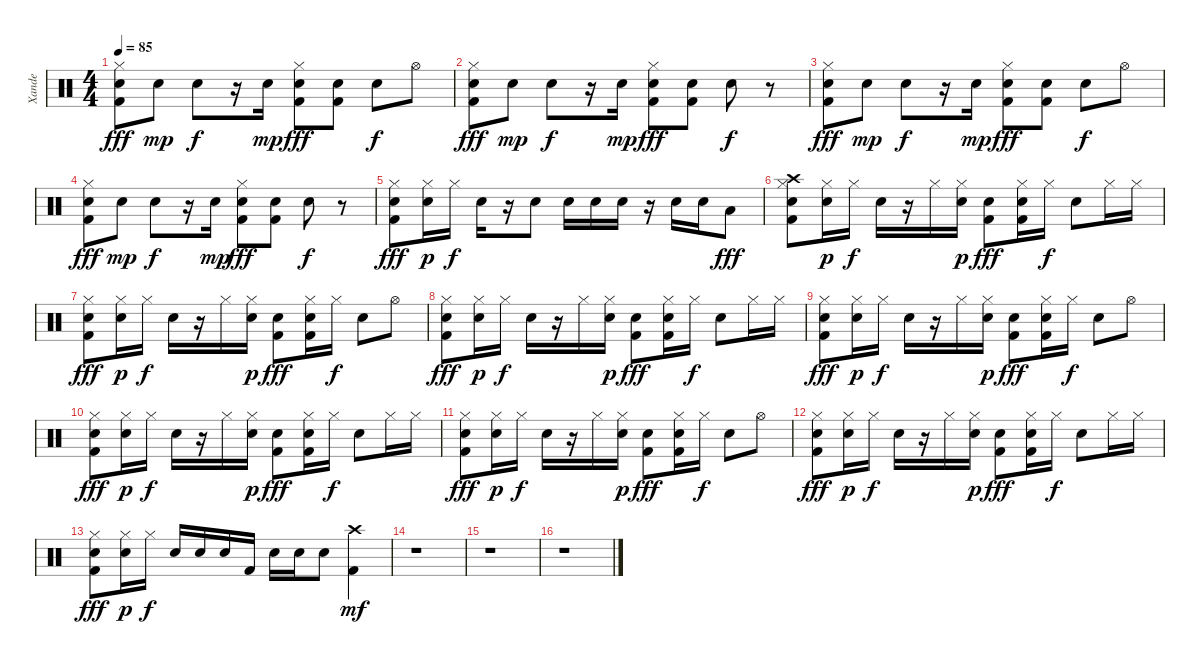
\track ("Xande" "Xande") {instrument percussion}
\staff {score}
\articulation defaults
\ts (4 4)
\tempo 85
\clef neutral
\ks c
("Hi-Hat (closed)" "Snare (hit) 2" "Kick (hit) 2").8{dy fff} "Snare (hit) 2".8{dy mp} "Electric Snare (hit)".8{dy f} r.16 "Snare (hit) 2".16{dy mp} ("Hi-Hat (closed)" "Snare (hit) 2" "Kick (hit) 2").8{dy fff} ("Snare (hit) 2" "Kick (hit) 2").8 "Electric Snare (hit)".8{dy f} "Hi-Hat (open)".8 |
("Hi-Hat (closed)" "Snare (hit) 2" "Kick (hit) 2").8{dy fff} "Snare (hit) 2".8{dy mp} "Electric Snare (hit)".8{dy f} r.16 "Snare (hit) 2".16{dy mp} ("Hi-Hat (closed)" "Snare (hit) 2" "Kick (hit) 2").8{dy fff} ("Snare (hit) 2" "Kick (hit) 2").8 "Electric Snare (hit)".8{dy f} r.8 |
("Hi-Hat (closed)" "Snare (hit) 2" "Kick (hit) 2").8{dy fff} "Snare (hit) 2".8{dy mp} "Electric Snare (hit)".8{dy f} r.16 "Snare (hit) 2".16{dy mp} ("Hi-Hat (closed)" "Snare (hit) 2" "Kick (hit) 2").8{dy fff} ("Snare (hit) 2" "Kick (hit) 2").8 "Electric Snare (hit)".8{dy f} "Hi-Hat (open)".8 |
("Hi-Hat (closed)" "Snare (hit) 2" "Kick (hit) 2").8{dy fff} "Snare (hit) 2".8{dy mp} "Electric Snare (hit)".8{dy f} r.16 "Snare (hit) 2".16{dy mp} ("Hi-Hat (closed)" "Snare (hit) 2" "Kick (hit) 2").8{dy fff} ("Snare (hit) 2" "Kick (hit) 2").8 "Electric Snare (hit)".8{dy f} r.8 |
("Hi-Hat (closed)" "Snare (hit) 2" "Kick (hit) 2").8{dy fff} ("Hi-Hat (closed)" "Snare (hit) 2").16{dy p} "Hi-Hat (closed)".16{dy f} "Electric Snare (hit)".16 r.16 "Snare (hit) 2".8 "Snare (hit) 2".16 "Snare (hit) 2".16 "Snare (hit) 2".16 r.16 "Snare (hit) 2".16 "Snare (hit) 2".16 "Low Tom (hit)".8{dy fff} |
("Crash high (hit)" "Hi-Hat (closed)" "Snare (hit) 2" "Kick (hit) 2").8 ("Hi-Hat (closed)" "Snare (hit) 2").16{dy p} "Hi-Hat (closed)".16{dy f} "Electric Snare (hit)".16 r.16 "Hi-Hat (closed)".16 ("Hi-Hat (closed)" "Snare (hit) 2").16{dy p} ("Snare (hit) 2" "Kick (hit) 2").8{dy fff} ("Hi-Hat (closed)" "Snare (hit) 2" "Kick (hit) 2").16 "Hi-Hat (closed)".16{dy f} "Electric Snare (hit)".8 "Hi-Hat (closed)".16 "Hi-Hat (closed)".16 |
("Hi-Hat (closed)" "Snare (hit) 2" "Kick (hit) 2").8{dy fff} ("Hi-Hat (closed)" "Snare (hit) 2").16{dy p} "Hi-Hat (closed)".16{dy f} "Electric Snare (hit)".16 r.16 "Hi-Hat (closed)".16 ("Hi-Hat (closed)" "Snare (hit) 2").16{dy p} ("Snare (hit) 2" "Kick (hit) 2").8{dy fff} ("Hi-Hat (closed)" "Snare (hit) 2" "Kick (hit) 2").16 "Hi-Hat (closed)".16{dy f} "Electric Snare (hit)".8 "Hi-Hat (open)".8 |
("Hi-Hat (closed)" "Snare (hit) 2" "Kick (hit) 2").8{dy fff} ("Hi-Hat (closed)" "Snare (hit) 2").16{dy p} "Hi-Hat (closed)".16{dy f} "Electric Snare (hit)".16 r.16 "Hi-Hat (closed)".16 ("Hi-Hat (closed)" "Snare (hit) 2").16{dy p} ("Snare (hit) 2" "Kick (hit) 2").8{dy fff} ("Hi-Hat (closed)" "Snare (hit) 2" "Kick (hit) 2").16 "Hi-Hat (closed)".16{dy f} "Electric Snare (hit)".8 "Hi-Hat (closed)".16 "Hi-Hat (closed)".16 |
("Hi-Hat (closed)" "Snare (hit) 2" "Kick (hit) 2").8{dy fff} ("Hi-Hat (closed)" "Snare (hit) 2").16{dy p} "Hi-Hat (closed)".16{dy f} "Electric Snare (hit)".16 r.16 "Hi-Hat (closed)".16 ("Hi-Hat (closed)" "Snare (hit) 2").16{dy p} ("Snare (hit) 2" "Kick (hit) 2").8{dy fff} ("Hi-Hat (closed)" "Snare (hit) 2" "Kick (hit) 2").16 "Hi-Hat (closed)".16{dy f} "Electric Snare (hit)".8 "Hi-Hat (open)".8 |
("Hi-Hat (closed)" "Snare (hit) 2" "Kick (hit) 2").8{dy fff} ("Hi-Hat (closed)" "Snare (hit) 2").16{dy p} "Hi-Hat (closed)".16{dy f} "Electric Snare (hit)".16 r.16 "Hi-Hat (closed)".16 ("Hi-Hat (closed)" "Snare (hit) 2").16{dy p} ("Snare (hit) 2" "Kick (hit) 2").8{dy fff} ("Hi-Hat (closed)" "Snare (hit) 2" "Kick (hit) 2").16 "Hi-Hat (closed)".16{dy f} "Electric Snare (hit)".8 "Hi-Hat (closed)".16 "Hi-Hat (closed)".16 |
("Hi-Hat (closed)" "Snare (hit) 2" "Kick (hit) 2").8{dy fff} ("Hi-Hat (closed)" "Snare (hit) 2").16{dy p} "Hi-Hat (closed)".16{dy f} "Electric Snare (hit)".16 r.16 "Hi-Hat (closed)".16 ("Hi-Hat (closed)" "Snare (hit) 2").16{dy p} ("Snare (hit) 2" "Kick (hit) 2").8{dy fff} ("Hi-Hat (closed)" "Snare (hit) 2" "Kick (hit) 2").16 "Hi-Hat (closed)".16{dy f} "Electric Snare (hit)".8 "Hi-Hat (open)".8 |
("Hi-Hat (closed)" "Snare (hit) 2" "Kick (hit) 2").8{dy fff} ("Hi-Hat (closed)" "Snare (hit) 2").16{dy p} "Hi-Hat (closed)".16{dy f} "Electric Snare (hit)".16 r.16 "Hi-Hat (closed)".16 ("Hi-Hat (closed)" "Snare (hit) 2").16{dy p} ("Snare (hit) 2" "Kick (hit) 2").8{dy fff} ("Hi-Hat (closed)" "Snare (hit) 2" "Kick (hit) 2").16 "Hi-Hat (closed)".16{dy f} "Electric Snare (hit)".8 "Hi-Hat (closed)".16 "Hi-Hat (closed)".16 |
("Hi-Hat (closed)" "Snare (hit) 2" "Kick (hit) 2").8{dy fff} ("Hi-Hat (closed)" "Snare (hit) 2").16{dy p} "Hi-Hat (closed)".16{dy f} "Electric Snare (hit)".16 "Electric Snare (hit)".16 "Electric Snare (hit)".16 "Kick (hit) 2".16 "Electric Snare (hit)".16 "Electric Snare (hit)".16 "Electric Snare (hit)".8 ("Crash high (hit)" "Kick (hit) 2").4{dy mf} |
r.1 |
r.1 |
r.1
